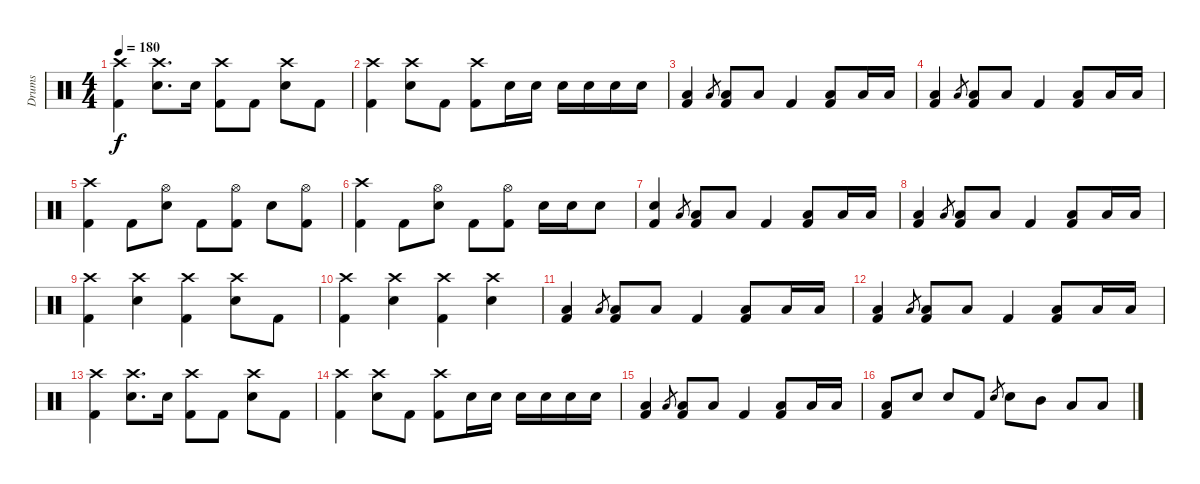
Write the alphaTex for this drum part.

\track ("Drums" "Drums") {instrument percussion}
\staff {score}
\articulation defaults
\ts (4 4)
\tempo 180
\clef neutral
\ks c
("Crash high (hit)" "Kick (hit) 2").4{dy f} ("Crash high (hit)" "Snare (hit) 2").8{d} "Snare (hit) 2".16 ("Crash high (hit)" "Kick (hit) 2").8 "Kick (hit) 2".8 ("Crash high (hit)" "Snare (hit) 2").8 "Kick (hit) 2".8 |
("Crash high (hit)" "Kick (hit) 2").4 ("Crash high (hit)" "Snare (hit) 2").8 "Kick (hit) 2".8 ("Crash high (hit)" "Kick (hit) 2").8 "Snare (hit) 2".16 "Snare (hit) 2".16 "Snare (hit) 2".16 "Snare (hit) 2".16 "Snare (hit) 2".16 "Snare (hit) 2".16 |
("Low Tom (hit)" "Kick (hit) 2").4 "Low Tom (hit)".8{gr} ("Low Tom (hit)" "Kick (hit) 2").8 "Low Tom (hit)".8 "Kick (hit) 2".4 ("Low Tom (hit)" "Kick (hit) 2").8 "Low Tom (hit)".16 "Low Tom (hit)".16 |
("Low Tom (hit)" "Kick (hit) 2").4 "Low Tom (hit)".8{gr} ("Low Tom (hit)" "Kick (hit) 2").8 "Low Tom (hit)".8 "Kick (hit) 2".4 ("Low Tom (hit)" "Kick (hit) 2").8 "Low Tom (hit)".16 "Low Tom (hit)".16 |
("Crash high (hit)" "Kick (hit) 2").4 "Kick (hit) 2".8 ("Hi-Hat (open)" "Snare (hit) 2").8 "Kick (hit) 2".8 ("Hi-Hat (open)" "Kick (hit) 2").8 "Snare (hit) 2".8 ("Hi-Hat (open)" "Kick (hit) 2").8 |
("Crash high (hit)" "Kick (hit) 2").4 "Kick (hit) 2".8 ("Hi-Hat (open)" "Snare (hit) 2").8 "Kick (hit) 2".8 ("Hi-Hat (open)" "Kick (hit) 2").8 "Snare (hit) 2".16 "Snare (hit) 2".16 "Snare (hit) 2".8 |
("Snare (hit) 2" "Kick (hit) 2").4 "Low Tom (hit)".8{gr} ("Low Tom (hit)" "Kick (hit) 2").8 "Low Tom (hit)".8 "Kick (hit) 2".4 ("Low Tom (hit)" "Kick (hit) 2").8 "Low Tom (hit)".16 "Low Tom (hit)".16 |
("Low Tom (hit)" "Kick (hit) 2").4 "Low Tom (hit)".8{gr} ("Low Tom (hit)" "Kick (hit) 2").8 "Low Tom (hit)".8 "Kick (hit) 2".4 ("Low Tom (hit)" "Kick (hit) 2").8 "Low Tom (hit)".16 "Low Tom (hit)".16 |
("Crash high (hit)" "Kick (hit) 2").4 ("Crash high (hit)" "Snare (hit) 2").4 ("Crash high (hit)" "Kick (hit) 2").4 ("Crash high (hit)" "Snare (hit) 2").8 "Kick (hit) 2".8 |
("Crash high (hit)" "Kick (hit) 2").4 ("Crash high (hit)" "Snare (hit) 2").4 ("Crash high (hit)" "Kick (hit) 2").4 ("Crash high (hit)" "Snare (hit) 2").4 |
("Low Tom (hit)" "Kick (hit) 2").4 "Low Tom (hit)".8{gr} ("Low Tom (hit)" "Kick (hit) 2").8 "Low Tom (hit)".8 "Kick (hit) 2".4 ("Low Tom (hit)" "Kick (hit) 2").8 "Low Tom (hit)".16 "Low Tom (hit)".16 |
("Low Tom (hit)" "Kick (hit) 2").4 "Low Tom (hit)".8{gr} ("Low Tom (hit)" "Kick (hit) 2").8 "Low Tom (hit)".8 "Kick (hit) 2".4 ("Low Tom (hit)" "Kick (hit) 2").8 "Low Tom (hit)".16 "Low Tom (hit)".16 |
("Crash high (hit)" "Kick (hit) 2").4 ("Crash high (hit)" "Snare (hit) 2").8{d} "Snare (hit) 2".16 ("Crash high (hit)" "Kick (hit) 2").8 "Kick (hit) 2".8 ("Crash high (hit)" "Snare (hit) 2").8 "Kick (hit) 2".8 |
("Crash high (hit)" "Kick (hit) 2").4 ("Crash high (hit)" "Snare (hit) 2").8 "Kick (hit) 2".8 ("Crash high (hit)" "Kick (hit) 2").8 "Snare (hit) 2".16 "Snare (hit) 2".16 "Snare (hit) 2".16 "Snare (hit) 2".16 "Snare (hit) 2".16 "Snare (hit) 2".16 |
("Low Tom (hit)" "Kick (hit) 2").4 "Low Tom (hit)".8{gr} ("Low Tom (hit)" "Kick (hit) 2").8 "Low Tom (hit)".8 "Kick (hit) 2".4 ("Low Tom (hit)" "Kick (hit) 2").8 "Low Tom (hit)".16 "Low Tom (hit)".16 |
("Low Tom (hit)" "Kick (hit) 2").8 "Snare (hit) 2".8 "Snare (hit) 2".8 "Kick (hit) 2".8 "Snare (hit) 2".8{gr} "Snare (hit) 2".8 "Mid Tom (hit)".8 "Low Tom (hit)".8 "Low Floor Tom (hit)".8
